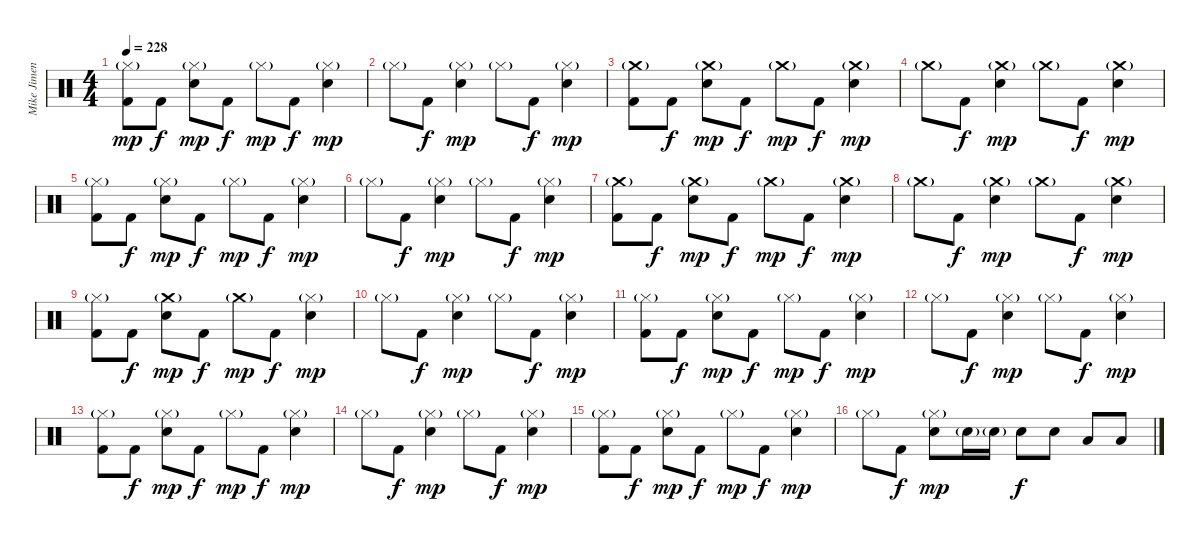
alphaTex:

\track ("Mike Jimenez" "Mike Jimen") {instrument percussion}
\staff {score}
\articulation defaults
\ts (4 4)
\tempo 228
\clef neutral
\ks c
("Hi-Hat (closed)"{g} "Kick (hit) 2").8{dy mp} "Kick (hit) 2".8{dy f} ("Hi-Hat (closed)"{g} "Electric Snare (hit)").8{dy mp} "Kick (hit) 2".8{dy f} "Hi-Hat (closed)"{g}.8{dy mp} "Kick (hit) 2".8{dy f} ("Hi-Hat (closed)"{g} "Electric Snare (hit)").4{dy mp} |
"Hi-Hat (closed)"{g}.8 "Kick (hit) 2".8{dy f} ("Hi-Hat (closed)"{g} "Electric Snare (hit)").4{dy mp} "Hi-Hat (closed)"{g}.8 "Kick (hit) 2".8{dy f} ("Hi-Hat (closed)"{g} "Electric Snare (hit)").4{dy mp} |
("Crash medium (hit)"{g} "Kick (hit) 2").8 "Kick (hit) 2".8{dy f} ("Crash medium (hit)"{g} "Electric Snare (hit)").8{dy mp} "Kick (hit) 2".8{dy f} "Crash medium (hit)"{g}.8{dy mp} "Kick (hit) 2".8{dy f} ("Crash medium (hit)"{g} "Electric Snare (hit)").4{dy mp} |
"Crash medium (hit)"{g}.8 "Kick (hit) 2".8{dy f} ("Crash medium (hit)"{g} "Electric Snare (hit)").4{dy mp} "Crash medium (hit)"{g}.8 "Kick (hit) 2".8{dy f} ("Crash medium (hit)"{g} "Electric Snare (hit)").4{dy mp} |
("Hi-Hat (closed)"{g} "Kick (hit) 2").8 "Kick (hit) 2".8{dy f} ("Hi-Hat (closed)"{g} "Electric Snare (hit)").8{dy mp} "Kick (hit) 2".8{dy f} "Hi-Hat (closed)"{g}.8{dy mp} "Kick (hit) 2".8{dy f} ("Hi-Hat (closed)"{g} "Electric Snare (hit)").4{dy mp} |
"Hi-Hat (closed)"{g}.8 "Kick (hit) 2".8{dy f} ("Hi-Hat (closed)"{g} "Electric Snare (hit)").4{dy mp} "Hi-Hat (closed)"{g}.8 "Kick (hit) 2".8{dy f} ("Hi-Hat (closed)"{g} "Electric Snare (hit)").4{dy mp} |
("Crash medium (hit)"{g} "Kick (hit) 2").8 "Kick (hit) 2".8{dy f} ("Crash medium (hit)"{g} "Electric Snare (hit)").8{dy mp} "Kick (hit) 2".8{dy f} "Crash medium (hit)"{g}.8{dy mp} "Kick (hit) 2".8{dy f} ("Crash medium (hit)"{g} "Electric Snare (hit)").4{dy mp} |
"Crash medium (hit)"{g}.8 "Kick (hit) 2".8{dy f} ("Crash medium (hit)"{g} "Electric Snare (hit)").4{dy mp} "Crash medium (hit)"{g}.8 "Kick (hit) 2".8{dy f} ("Crash medium (hit)"{g} "Electric Snare (hit)").4{dy mp} |
("Hi-Hat (closed)"{g} "Kick (hit) 2").8 "Kick (hit) 2".8{dy f} ("Crash medium (hit)"{g} "Electric Snare (hit)").8{dy mp} "Kick (hit) 2".8{dy f} "Crash medium (hit)"{g}.8{dy mp} "Kick (hit) 2".8{dy f} ("Hi-Hat (closed)"{g} "Electric Snare (hit)").4{dy mp} |
"Hi-Hat (closed)"{g}.8 "Kick (hit) 2".8{dy f} ("Hi-Hat (closed)"{g} "Electric Snare (hit)").4{dy mp} "Hi-Hat (closed)"{g}.8 "Kick (hit) 2".8{dy f} ("Hi-Hat (closed)"{g} "Electric Snare (hit)").4{dy mp} |
("Hi-Hat (closed)"{g} "Kick (hit) 2").8 "Kick (hit) 2".8{dy f} ("Hi-Hat (closed)"{g} "Electric Snare (hit)").8{dy mp} "Kick (hit) 2".8{dy f} "Hi-Hat (closed)"{g}.8{dy mp} "Kick (hit) 2".8{dy f} ("Hi-Hat (closed)"{g} "Electric Snare (hit)").4{dy mp} |
"Hi-Hat (closed)"{g}.8 "Kick (hit) 2".8{dy f} ("Hi-Hat (closed)"{g} "Electric Snare (hit)").4{dy mp} "Hi-Hat (closed)"{g}.8 "Kick (hit) 2".8{dy f} ("Hi-Hat (closed)"{g} "Electric Snare (hit)").4{dy mp} |
("Hi-Hat (closed)"{g} "Kick (hit) 2").8 "Kick (hit) 2".8{dy f} ("Hi-Hat (closed)"{g} "Electric Snare (hit)").8{dy mp} "Kick (hit) 2".8{dy f} "Hi-Hat (closed)"{g}.8{dy mp} "Kick (hit) 2".8{dy f} ("Hi-Hat (closed)"{g} "Electric Snare (hit)").4{dy mp} |
"Hi-Hat (closed)"{g}.8 "Kick (hit) 2".8{dy f} ("Hi-Hat (closed)"{g} "Electric Snare (hit)").4{dy mp} "Hi-Hat (closed)"{g}.8 "Kick (hit) 2".8{dy f} ("Hi-Hat (closed)"{g} "Electric Snare (hit)").4{dy mp} |
("Hi-Hat (closed)"{g} "Kick (hit) 2").8 "Kick (hit) 2".8{dy f} ("Hi-Hat (closed)"{g} "Electric Snare (hit)").8{dy mp} "Kick (hit) 2".8{dy f} "Hi-Hat (closed)"{g}.8{dy mp} "Kick (hit) 2".8{dy f} ("Hi-Hat (closed)"{g} "Electric Snare (hit)").4{dy mp} |
"Hi-Hat (closed)"{g}.8 "Kick (hit) 2".8{dy f} ("Hi-Hat (closed)"{g} "Electric Snare (hit)").8{dy mp} "Electric Snare (hit)"{g}.16 "Electric Snare (hit)"{g}.16 "Electric Snare (hit)".8{dy f} "Electric Snare (hit)".8 "Low Floor Tom (hit)".8 "Low Floor Tom (hit)".8
